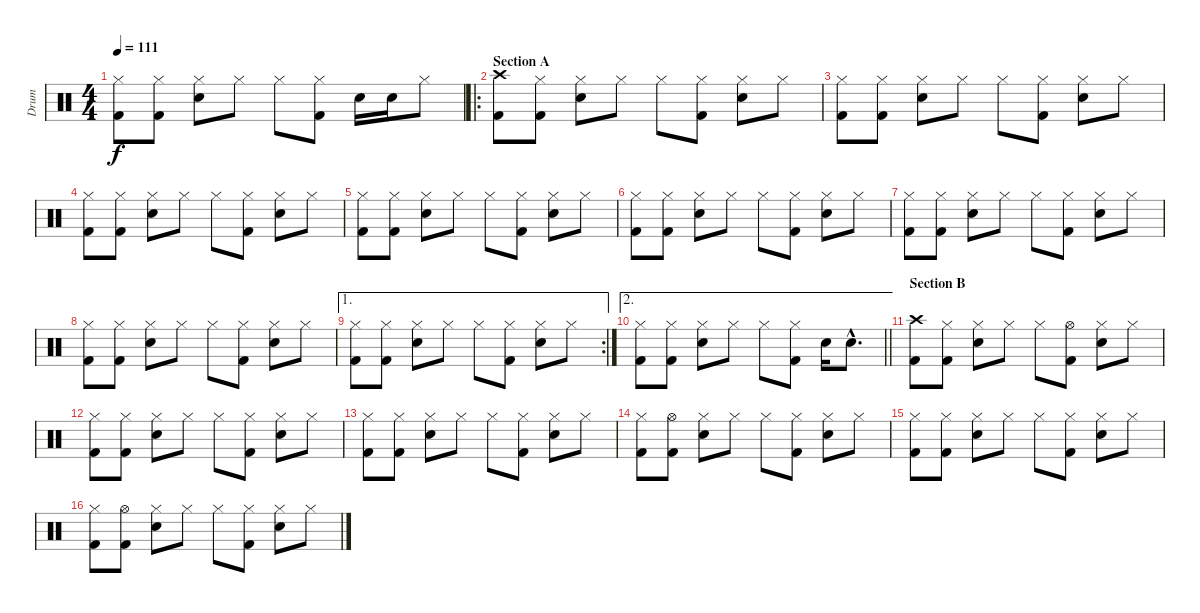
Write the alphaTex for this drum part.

\track ("Drum" "Drum") {instrument percussion}
\staff {score}
\articulation defaults
\ts (4 4)
\tempo 111
\clef neutral
\ks c
("Hi-Hat (closed)" "Kick (hit) 2").8{dy f} ("Hi-Hat (closed)" "Kick (hit) 2").8 ("Hi-Hat (closed)" "Snare (hit) 2").8 "Hi-Hat (closed)".8 "Hi-Hat (closed)".8 ("Hi-Hat (closed)" "Kick (hit) 2").8 "Snare (hit) 2".16 "Snare (hit) 2".16 "Hi-Hat (closed)".8 |
\ro
\section ("" "Section A")
("Crash high (hit)" "Kick (hit) 2").8 ("Hi-Hat (closed)" "Kick (hit) 2").8 ("Hi-Hat (closed)" "Snare (hit) 2").8 "Hi-Hat (closed)".8 "Hi-Hat (closed)".8 ("Hi-Hat (closed)" "Kick (hit) 2").8 ("Hi-Hat (closed)" "Snare (hit) 2").8 "Hi-Hat (closed)".8 |
("Hi-Hat (closed)" "Kick (hit) 2").8 ("Hi-Hat (closed)" "Kick (hit) 2").8 ("Hi-Hat (closed)" "Snare (hit) 2").8 "Hi-Hat (closed)".8 "Hi-Hat (closed)".8 ("Hi-Hat (closed)" "Kick (hit) 2").8 ("Hi-Hat (closed)" "Snare (hit) 2").8 "Hi-Hat (closed)".8 |
("Hi-Hat (closed)" "Kick (hit) 2").8 ("Hi-Hat (closed)" "Kick (hit) 2").8 ("Hi-Hat (closed)" "Snare (hit) 2").8 "Hi-Hat (closed)".8 "Hi-Hat (closed)".8 ("Hi-Hat (closed)" "Kick (hit) 2").8 ("Hi-Hat (closed)" "Snare (hit) 2").8 "Hi-Hat (closed)".8 |
("Hi-Hat (closed)" "Kick (hit) 2").8 ("Hi-Hat (closed)" "Kick (hit) 2").8 ("Hi-Hat (closed)" "Snare (hit) 2").8 "Hi-Hat (closed)".8 "Hi-Hat (closed)".8 ("Hi-Hat (closed)" "Kick (hit) 2").8 ("Hi-Hat (closed)" "Snare (hit) 2").8 "Hi-Hat (closed)".8 |
("Hi-Hat (closed)" "Kick (hit) 2").8 ("Hi-Hat (closed)" "Kick (hit) 2").8 ("Hi-Hat (closed)" "Snare (hit) 2").8 "Hi-Hat (closed)".8 "Hi-Hat (closed)".8 ("Hi-Hat (closed)" "Kick (hit) 2").8 ("Hi-Hat (closed)" "Snare (hit) 2").8 "Hi-Hat (closed)".8 |
("Hi-Hat (closed)" "Kick (hit) 2").8 ("Hi-Hat (closed)" "Kick (hit) 2").8 ("Hi-Hat (closed)" "Snare (hit) 2").8 "Hi-Hat (closed)".8 "Hi-Hat (closed)".8 ("Hi-Hat (closed)" "Kick (hit) 2").8 ("Hi-Hat (closed)" "Snare (hit) 2").8 "Hi-Hat (closed)".8 |
("Hi-Hat (closed)" "Kick (hit) 2").8 ("Hi-Hat (closed)" "Kick (hit) 2").8 ("Hi-Hat (closed)" "Snare (hit) 2").8 "Hi-Hat (closed)".8 "Hi-Hat (closed)".8 ("Hi-Hat (closed)" "Kick (hit) 2").8 ("Hi-Hat (closed)" "Snare (hit) 2").8 "Hi-Hat (closed)".8 |
\ae 1
\rc 2
("Hi-Hat (closed)" "Kick (hit) 2").8 ("Hi-Hat (closed)" "Kick (hit) 2").8 ("Hi-Hat (closed)" "Snare (hit) 2").8 "Hi-Hat (closed)".8 "Hi-Hat (closed)".8 ("Hi-Hat (closed)" "Kick (hit) 2").8 ("Hi-Hat (closed)" "Snare (hit) 2").8 "Hi-Hat (closed)".8 |
\ae 2
\barLineRight lightlight
("Hi-Hat (closed)" "Kick (hit) 2").8 ("Hi-Hat (closed)" "Kick (hit) 2").8 ("Hi-Hat (closed)" "Snare (hit) 2").8 "Hi-Hat (closed)".8 "Hi-Hat (closed)".8 ("Hi-Hat (closed)" "Kick (hit) 2").8 "Snare (hit) 2".16 "Snare (hit) 2"{hac}.8{d} |
\section ("" "Section B")
("Crash high (hit)" "Kick (hit) 2").8 ("Hi-Hat (closed)" "Kick (hit) 2").8 ("Hi-Hat (closed)" "Snare (hit) 2").8 "Hi-Hat (closed)".8 "Hi-Hat (closed)".8 ("Hi-Hat (open)" "Kick (hit) 2").8 ("Hi-Hat (closed)" "Snare (hit) 2").8 "Hi-Hat (closed)".8 |
("Hi-Hat (closed)" "Kick (hit) 2").8 ("Hi-Hat (closed)" "Kick (hit) 2").8 ("Hi-Hat (closed)" "Snare (hit) 2").8 "Hi-Hat (closed)".8 "Hi-Hat (closed)".8 ("Hi-Hat (closed)" "Kick (hit) 2").8 ("Hi-Hat (closed)" "Snare (hit) 2").8 "Hi-Hat (closed)".8 |
("Hi-Hat (closed)" "Kick (hit) 2").8 ("Hi-Hat (closed)" "Kick (hit) 2").8 ("Hi-Hat (closed)" "Snare (hit) 2").8 "Hi-Hat (closed)".8 "Hi-Hat (closed)".8 ("Hi-Hat (closed)" "Kick (hit) 2").8 ("Hi-Hat (closed)" "Snare (hit) 2").8 "Hi-Hat (closed)".8 |
("Hi-Hat (closed)" "Kick (hit) 2").8 ("Hi-Hat (open)" "Kick (hit) 2").8 ("Hi-Hat (closed)" "Snare (hit) 2").8 "Hi-Hat (closed)".8 "Hi-Hat (closed)".8 ("Hi-Hat (closed)" "Kick (hit) 2").8 ("Hi-Hat (closed)" "Snare (hit) 2").8 "Hi-Hat (closed)".8 |
("Hi-Hat (closed)" "Kick (hit) 2").8 ("Hi-Hat (closed)" "Kick (hit) 2").8 ("Hi-Hat (closed)" "Snare (hit) 2").8 "Hi-Hat (closed)".8 "Hi-Hat (closed)".8 ("Hi-Hat (closed)" "Kick (hit) 2").8 ("Hi-Hat (closed)" "Snare (hit) 2").8 "Hi-Hat (closed)".8 |
("Hi-Hat (closed)" "Kick (hit) 2").8 ("Hi-Hat (open)" "Kick (hit) 2").8 ("Hi-Hat (closed)" "Snare (hit) 2").8 "Hi-Hat (closed)".8 "Hi-Hat (closed)".8 ("Hi-Hat (closed)" "Kick (hit) 2").8 ("Hi-Hat (closed)" "Snare (hit) 2").8 "Hi-Hat (closed)".8
